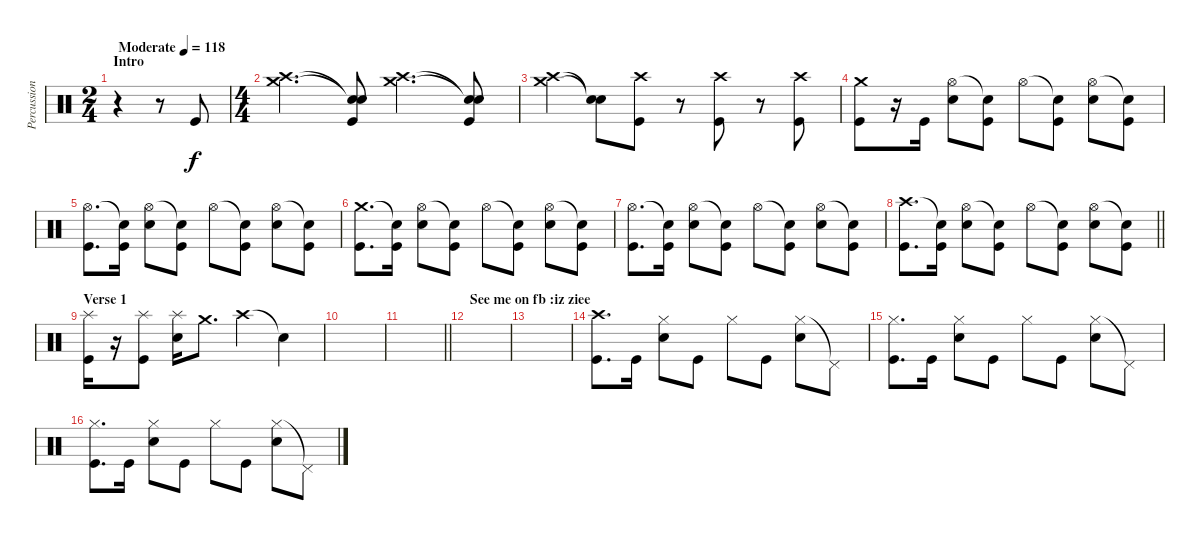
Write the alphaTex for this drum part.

\track ("Percussion 1" "Percussion") {instrument percussion}
\staff {score}
\articulation defaults
\ts (2 4)
\section ("" "Intro")
\tempo (118 "Moderate")
\clef neutral
\ks c
r.4{dy f} r.8 "Kick (hit)".8 |
\ts (4 4)
("Crash high (hit)" "Crash medium (hit)").4{d} ("Snare (hit)"{t} "Snare (hit)"{t} "Kick (hit)").8 ("Crash high (hit)" "Crash medium (hit)").4{d} ("Snare (hit)"{t} "Snare (hit)"{t} "Kick (hit)").8 |
("Crash high (hit)" "Crash medium (hit)").4 ("Snare (hit)"{t} "Snare (hit)"{t}).8 ("Crash high (hit)" "Kick (hit)").8 r.8 ("Crash high (hit)" "Kick (hit)").8 r.8 ("Crash high (hit)" "Kick (hit)").8 |
("Crash medium (hit)" "Kick (hit)").8 r.16 "Kick (hit)".16 ("Hi-Hat (open)" "Electric Snare (hit)").8 ("Snare (hit)"{t} "Kick (hit)").8 "Hi-Hat (open)".8 ("Snare (hit)"{t} "Kick (hit)").8 ("Hi-Hat (open)" "Electric Snare (hit)").8 ("Snare (hit)"{t} "Kick (hit)").8 |
("Hi-Hat (open)" "Kick (hit)").8{d} ("Snare (hit)"{t} "Kick (hit)").16 ("Hi-Hat (open)" "Electric Snare (hit)").8 ("Snare (hit)"{t} "Kick (hit)").8 "Hi-Hat (open)".8 ("Snare (hit)"{t} "Kick (hit)").8 ("Hi-Hat (open)" "Electric Snare (hit)").8 ("Snare (hit)"{t} "Kick (hit)").8 |
("Crash medium (hit)" "Kick (hit)").8{d} ("Snare (hit)"{t} "Kick (hit)").16 ("Hi-Hat (open)" "Electric Snare (hit)").8 ("Snare (hit)"{t} "Kick (hit)").8 "Hi-Hat (open)".8 ("Snare (hit)"{t} "Kick (hit)").8 ("Hi-Hat (open)" "Electric Snare (hit)").8 ("Snare (hit)"{t} "Kick (hit)").8 |
("Hi-Hat (open)" "Kick (hit)").8{d} ("Snare (hit)"{t} "Kick (hit)").16 ("Hi-Hat (open)" "Electric Snare (hit)").8 ("Snare (hit)"{t} "Kick (hit)").8 "Hi-Hat (open)".8 ("Snare (hit)"{t} "Kick (hit)").8 ("Hi-Hat (open)" "Electric Snare (hit)").8 ("Snare (hit)"{t} "Kick (hit)").8 |
\barLineRight lightlight
("Crash high (hit)" "Kick (hit)").8{d} ("Snare (hit)"{t} "Kick (hit)").16 ("Hi-Hat (open)" "Electric Snare (hit)").8 ("Snare (hit)"{t} "Kick (hit)").8 "Hi-Hat (open)".8 ("Snare (hit)"{t} "Kick (hit)").8 ("Hi-Hat (open)" "Electric Snare (hit)").8 ("Snare (hit)"{t} "Kick (hit)").8 |
\section ("" "Verse 1")
("Splash (hit)" "Kick (hit)").16 r.16 ("Splash (hit)" "Kick (hit)").8 ("Electric Snare (hit)" "Splash (hit)").16 "Crash medium (hit)".8{d} "Crash high (hit)".4 "Snare (hit)"{t}.4 |
|
\barLineRight lightlight
|
\section ("" "See me on fb :iz ziee")
|
|
("Crash high (hit)" "Kick (hit)").8{d} "Kick (hit)".16 ("Hi-Hat (closed)" "Electric Snare (hit)").8 "Kick (hit)".8 "Hi-Hat (closed)".8 "Kick (hit)".8 ("Hi-Hat (closed)" "Electric Snare (hit)").8 "Pedal Hi-Hat (hit)"{t}.8 |
("Hi-Hat (closed)" "Kick (hit)").8{d} "Kick (hit)".16 ("Hi-Hat (closed)" "Electric Snare (hit)").8 "Kick (hit)".8 "Hi-Hat (closed)".8 "Kick (hit)".8 ("Hi-Hat (closed)" "Electric Snare (hit)").8 "Pedal Hi-Hat (hit)"{t}.8 |
("Hi-Hat (closed)" "Kick (hit)").8{d} "Kick (hit)".16 ("Hi-Hat (closed)" "Electric Snare (hit)").8 "Kick (hit)".8 "Hi-Hat (closed)".8 "Kick (hit)".8 ("Hi-Hat (closed)" "Electric Snare (hit)").8 "Pedal Hi-Hat (hit)"{t}.8
